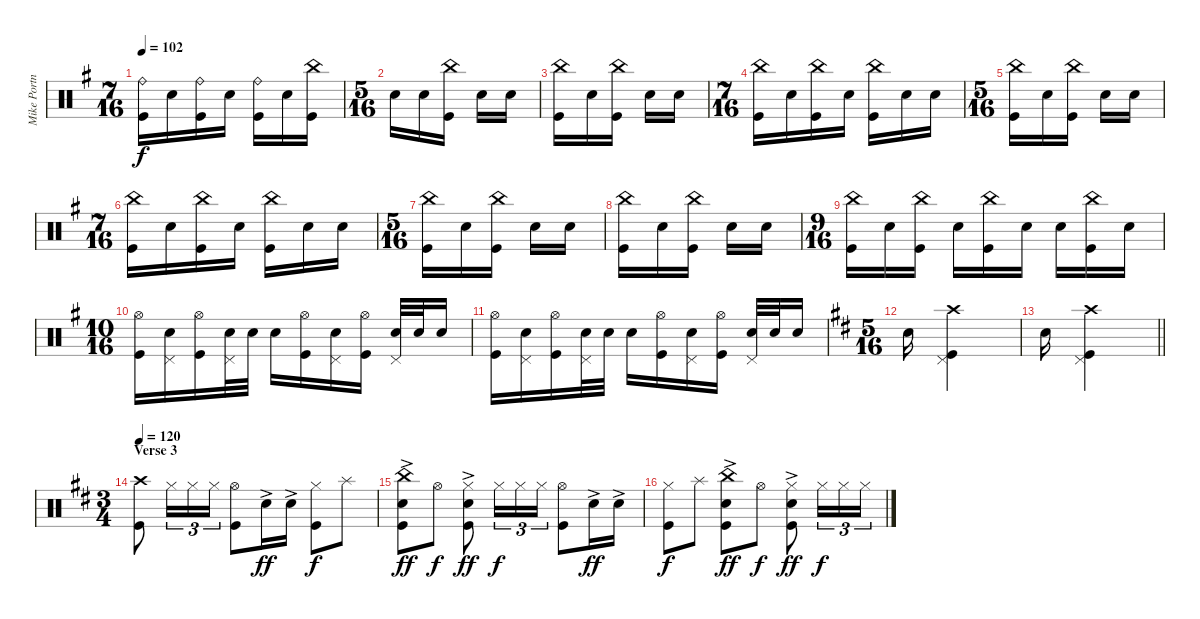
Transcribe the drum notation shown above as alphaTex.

\track ("Mike Portnoy" "Mike Portn") {instrument percussion}
\staff {score}
\articulation defaults
\ts (7 16)
\tempo 102
\clef neutral
\ks eminor
("Ride (bell)" "Kick (hit)").16{dy f} "Electric Snare (hit)".16 ("Ride (bell)" "Kick (hit)").16 "Electric Snare (hit)".16 ("Ride (bell)" "Kick (hit)").16 "Electric Snare (hit)".16 ("China (hit)" "Kick (hit)").16 |
\ts (5 16)
"Electric Snare (hit)".16 "Electric Snare (hit)".16 ("China (hit)" "Kick (hit)").16 "Electric Snare (hit)".16 "Electric Snare (hit)".16 |
("Kick (hit)" "China (hit)").16 "Electric Snare (hit)".16 ("Kick (hit)" "China (hit)").16 "Electric Snare (hit)".16 "Electric Snare (hit)".16 |
\ts (7 16)
("China (hit)" "Kick (hit)").16 "Electric Snare (hit)".16 ("China (hit)" "Kick (hit)").16 "Electric Snare (hit)".16 ("China (hit)" "Kick (hit)").16 "Electric Snare (hit)".16 "Electric Snare (hit)".16 |
\ts (5 16)
("Kick (hit)" "China (hit)").16 "Electric Snare (hit)".16 ("Kick (hit)" "China (hit)").16 "Electric Snare (hit)".16 "Electric Snare (hit)".16 |
\ts (7 16)
("China (hit)" "Kick (hit)").16 "Electric Snare (hit)".16 ("China (hit)" "Kick (hit)").16 "Electric Snare (hit)".16 ("China (hit)" "Kick (hit)").16 "Electric Snare (hit)".16 "Electric Snare (hit)".16 |
\ts (5 16)
("Kick (hit)" "China (hit)").16 "Electric Snare (hit)".16 ("Kick (hit)" "China (hit)").16 "Electric Snare (hit)".16 "Electric Snare (hit)".16 |
("Kick (hit)" "China (hit)").16 "Electric Snare (hit)".16 ("Kick (hit)" "China (hit)").16 "Electric Snare (hit)".16 "Electric Snare (hit)".16 |
\ts (9 16)
("China (hit)" "Kick (hit)").16 "Electric Snare (hit)".16 ("China (hit)" "Kick (hit)").16 "Electric Snare (hit)".16 ("China (hit)" "Kick (hit)").16 "Electric Snare (hit)".16 "Electric Snare (hit)".16 ("China (hit)" "Kick (hit)").16 "Electric Snare (hit)".16 |
\ts (10 16)
("Kick (hit)" "Hi-Hat (open)").16 ("Snare (hit) 2" "Pedal Hi-Hat (hit)").16 ("Kick (hit)" "Hi-Hat (open)").16 ("Snare (hit) 2" "Pedal Hi-Hat (hit)").32 "Snare (hit) 2".32 "Snare (hit) 2".16 ("Kick (hit)" "Hi-Hat (open)").16 ("Snare (hit) 2" "Pedal Hi-Hat (hit)").16 ("Kick (hit)" "Hi-Hat (open)").16 ("Snare (hit) 2" "Pedal Hi-Hat (hit)").32 "Snare (hit) 2".32 "Snare (hit) 2".16 |
("Kick (hit)" "Hi-Hat (open)").16 ("Snare (hit) 2" "Pedal Hi-Hat (hit)").16 ("Kick (hit)" "Hi-Hat (open)").16 ("Snare (hit) 2" "Pedal Hi-Hat (hit)").32 "Snare (hit) 2".32 "Snare (hit) 2".16 ("Kick (hit)" "Hi-Hat (open)").16 ("Snare (hit) 2" "Pedal Hi-Hat (hit)").16 ("Kick (hit)" "Hi-Hat (open)").16 ("Snare (hit) 2" "Pedal Hi-Hat (hit)").32 "Snare (hit) 2".32 "Snare (hit) 2".16 |
\ts (5 16)
\ks bminor "Snare (hit) 2".16
("Pedal Hi-Hat (hit)" "Crash high (hit)" "Kick (hit)").4 |
\barLineRight lightlight "Snare (hit) 2".16
("Pedal Hi-Hat (hit)" "Crash high (hit)" "Kick (hit)").4 |
\ts (3 4)
\section ("" "Verse 3")
\tempo 120
("Crash high (hit)" "Kick (hit)").8 "Hi-Hat (closed)".16{tu (3 2)} "Hi-Hat (closed)".16{tu (3 2)} "Hi-Hat (closed)".16{tu (3 2)} ("Hi-Hat (open)" "Kick (hit)").8 "Snare (hit) 2"{ac}.16{dy ff} "Snare (hit) 2"{ac}.16 ("Hi-Hat (closed)" "Kick (hit)").8{dy f} "Splash (hit)".8 |
("China (hit)"{ac} "Snare (hit) 2"{ac} "Kick (hit)"{ac}).8{dy ff} "Hi-Hat (open)".8{dy f} ("Kick (hit)"{ac} "Hi-Hat (closed)"{ac} "Snare (hit) 2"{ac}).8{dy ff} "Hi-Hat (closed)".16{tu (3 2) dy f} "Hi-Hat (closed)".16{tu (3 2)} "Hi-Hat (closed)".16{tu (3 2)} ("Kick (hit)" "Hi-Hat (open)").8 "Snare (hit) 2"{ac}.16{dy ff} "Snare (hit) 2"{ac}.16 |
("Hi-Hat (closed)" "Kick (hit)").8{dy f} "Splash (hit)".8 ("China (hit)"{ac} "Snare (hit) 2"{ac} "Kick (hit)"{ac}).8{dy ff} "Hi-Hat (open)".8{dy f} ("Kick (hit)"{ac} "Hi-Hat (closed)"{ac} "Snare (hit) 2"{ac}).8{dy ff} "Hi-Hat (closed)".16{tu (3 2) dy f} "Hi-Hat (closed)".16{tu (3 2)} "Hi-Hat (closed)".16{tu (3 2)}
